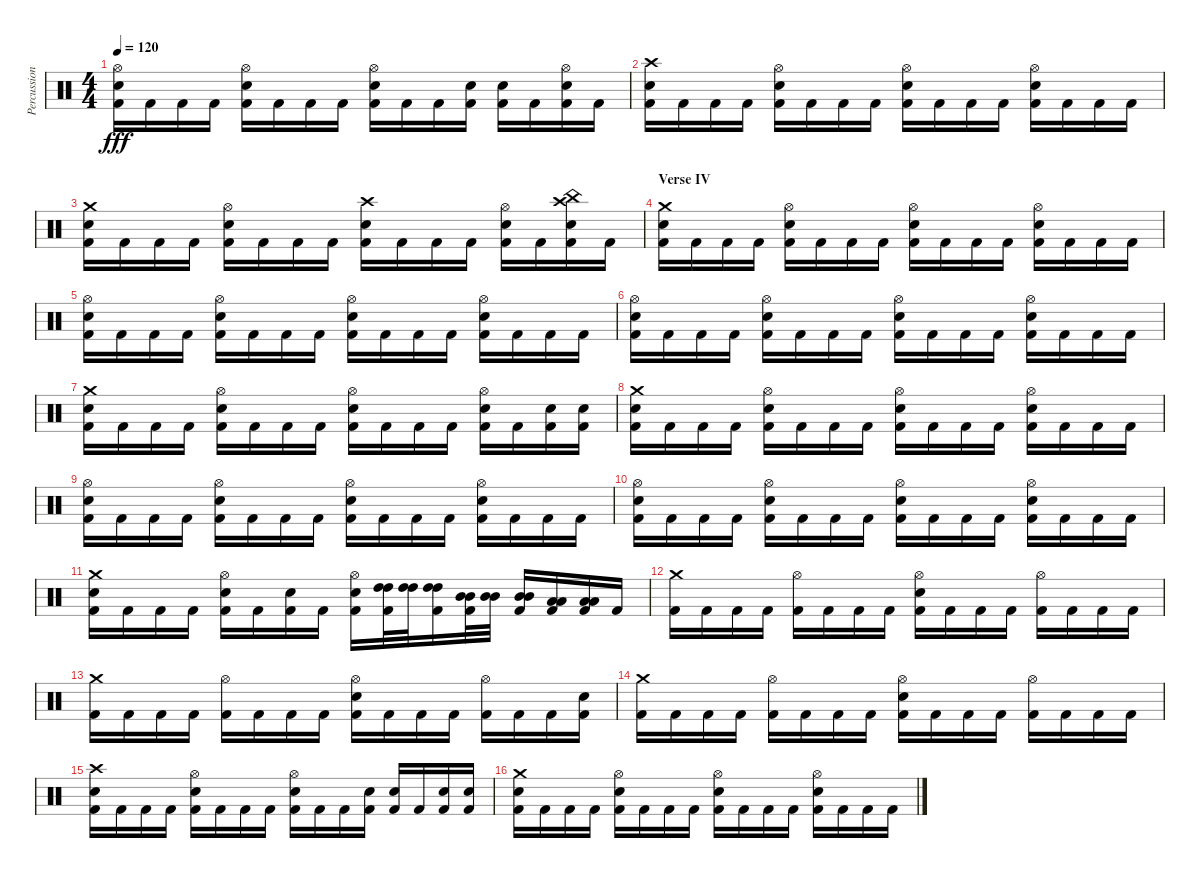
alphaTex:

\track ("Percussion" "Percussion") {instrument percussion}
\staff {score}
\articulation defaults
\ts (4 4)
\tempo 120
\clef neutral
\ks c
("Hi-Hat (open)" "Snare (hit) 2" "Kick (hit) 2").16{dy fff} "Kick (hit) 2".16 "Kick (hit) 2".16 "Kick (hit) 2".16 ("Hi-Hat (open)" "Snare (hit) 2" "Kick (hit) 2").16 "Kick (hit) 2".16 "Kick (hit) 2".16 "Kick (hit) 2".16 ("Hi-Hat (open)" "Snare (hit) 2" "Kick (hit) 2").16 "Kick (hit) 2".16 "Kick (hit) 2".16 ("Snare (hit) 2" "Kick (hit) 2").16 ("Snare (hit) 2" "Kick (hit) 2").16 "Kick (hit) 2".16 ("Hi-Hat (open)" "Snare (hit) 2" "Kick (hit) 2").16 "Kick (hit) 2".16 |
("Crash high (hit)" "Snare (hit) 2" "Kick (hit) 2").16 "Kick (hit) 2".16 "Kick (hit) 2".16 "Kick (hit) 2".16 ("Hi-Hat (open)" "Snare (hit) 2" "Kick (hit) 2").16 "Kick (hit) 2".16 "Kick (hit) 2".16 "Kick (hit) 2".16 ("Hi-Hat (open)" "Snare (hit) 2" "Kick (hit) 2").16 "Kick (hit) 2".16 "Kick (hit) 2".16 "Kick (hit) 2".16 ("Hi-Hat (open)" "Snare (hit) 2" "Kick (hit) 2").16 "Kick (hit) 2".16 "Kick (hit) 2".16 "Kick (hit) 2".16 |
("Crash medium (hit)" "Snare (hit) 2" "Kick (hit) 2").16 "Kick (hit) 2".16 "Kick (hit) 2".16 "Kick (hit) 2".16 ("Hi-Hat (open)" "Snare (hit) 2" "Kick (hit) 2").16 "Kick (hit) 2".16 "Kick (hit) 2".16 "Kick (hit) 2".16 ("Crash high (hit)" "Snare (hit) 2" "Kick (hit) 2").16 "Kick (hit) 2".16 "Kick (hit) 2".16 "Kick (hit) 2".16 ("Hi-Hat (open)" "Snare (hit) 2" "Kick (hit) 2").16 "Kick (hit) 2".16 ("Crash high (hit)" "China (hit)" "Snare (hit) 2" "Kick (hit) 2").16 "Kick (hit) 2".16 |
\section ("" "Verse IV")
("Crash medium (hit)" "Snare (hit) 2" "Kick (hit) 2").16 "Kick (hit) 2".16 "Kick (hit) 2".16 "Kick (hit) 2".16 ("Hi-Hat (open)" "Snare (hit) 2" "Kick (hit) 2").16 "Kick (hit) 2".16 "Kick (hit) 2".16 "Kick (hit) 2".16 ("Hi-Hat (open)" "Snare (hit) 2" "Kick (hit) 2").16 "Kick (hit) 2".16 "Kick (hit) 2".16 "Kick (hit) 2".16 ("Hi-Hat (open)" "Snare (hit) 2" "Kick (hit) 2").16 "Kick (hit) 2".16 "Kick (hit) 2".16 "Kick (hit) 2".16 |
("Hi-Hat (open)" "Snare (hit) 2" "Kick (hit) 2").16 "Kick (hit) 2".16 "Kick (hit) 2".16 "Kick (hit) 2".16 ("Hi-Hat (open)" "Snare (hit) 2" "Kick (hit) 2").16 "Kick (hit) 2".16 "Kick (hit) 2".16 "Kick (hit) 2".16 ("Hi-Hat (open)" "Snare (hit) 2" "Kick (hit) 2").16 "Kick (hit) 2".16 "Kick (hit) 2".16 "Kick (hit) 2".16 ("Hi-Hat (open)" "Snare (hit) 2" "Kick (hit) 2").16 "Kick (hit) 2".16 "Kick (hit) 2".16 "Kick (hit) 2".16 |
("Hi-Hat (open)" "Snare (hit) 2" "Kick (hit) 2").16 "Kick (hit) 2".16 "Kick (hit) 2".16 "Kick (hit) 2".16 ("Hi-Hat (open)" "Snare (hit) 2" "Kick (hit) 2").16 "Kick (hit) 2".16 "Kick (hit) 2".16 "Kick (hit) 2".16 ("Hi-Hat (open)" "Snare (hit) 2" "Kick (hit) 2").16 "Kick (hit) 2".16 "Kick (hit) 2".16 "Kick (hit) 2".16 ("Hi-Hat (open)" "Snare (hit) 2" "Kick (hit) 2").16 "Kick (hit) 2".16 "Kick (hit) 2".16 "Kick (hit) 2".16 |
("Crash medium (hit)" "Snare (hit) 2" "Kick (hit) 2").16 "Kick (hit) 2".16 "Kick (hit) 2".16 "Kick (hit) 2".16 ("Hi-Hat (open)" "Snare (hit) 2" "Kick (hit) 2").16 "Kick (hit) 2".16 "Kick (hit) 2".16 "Kick (hit) 2".16 ("Hi-Hat (open)" "Snare (hit) 2" "Kick (hit) 2").16 "Kick (hit) 2".16 "Kick (hit) 2".16 "Kick (hit) 2".16 ("Hi-Hat (open)" "Snare (hit) 2" "Kick (hit) 2").16 "Kick (hit) 2".16 ("Snare (hit) 2" "Kick (hit) 2").16 ("Snare (hit) 2" "Kick (hit) 2").16 |
("Crash medium (hit)" "Snare (hit) 2" "Kick (hit) 2").16 "Kick (hit) 2".16 "Kick (hit) 2".16 "Kick (hit) 2".16 ("Hi-Hat (open)" "Snare (hit) 2" "Kick (hit) 2").16 "Kick (hit) 2".16 "Kick (hit) 2".16 "Kick (hit) 2".16 ("Hi-Hat (open)" "Snare (hit) 2" "Kick (hit) 2").16 "Kick (hit) 2".16 "Kick (hit) 2".16 "Kick (hit) 2".16 ("Hi-Hat (open)" "Snare (hit) 2" "Kick (hit) 2").16 "Kick (hit) 2".16 "Kick (hit) 2".16 "Kick (hit) 2".16 |
("Hi-Hat (open)" "Snare (hit) 2" "Kick (hit) 2").16 "Kick (hit) 2".16 "Kick (hit) 2".16 "Kick (hit) 2".16 ("Hi-Hat (open)" "Snare (hit) 2" "Kick (hit) 2").16 "Kick (hit) 2".16 "Kick (hit) 2".16 "Kick (hit) 2".16 ("Hi-Hat (open)" "Snare (hit) 2" "Kick (hit) 2").16 "Kick (hit) 2".16 "Kick (hit) 2".16 "Kick (hit) 2".16 ("Hi-Hat (open)" "Snare (hit) 2" "Kick (hit) 2").16 "Kick (hit) 2".16 "Kick (hit) 2".16 "Kick (hit) 2".16 |
("Hi-Hat (open)" "Snare (hit) 2" "Kick (hit) 2").16 "Kick (hit) 2".16 "Kick (hit) 2".16 "Kick (hit) 2".16 ("Hi-Hat (open)" "Snare (hit) 2" "Kick (hit) 2").16 "Kick (hit) 2".16 "Kick (hit) 2".16 "Kick (hit) 2".16 ("Hi-Hat (open)" "Snare (hit) 2" "Kick (hit) 2").16 "Kick (hit) 2".16 "Kick (hit) 2".16 "Kick (hit) 2".16 ("Hi-Hat (open)" "Snare (hit) 2" "Kick (hit) 2").16 "Kick (hit) 2".16 "Kick (hit) 2".16 "Kick (hit) 2".16 |
("Crash medium (hit)" "Snare (hit) 2" "Kick (hit) 2").16 "Kick (hit) 2".16 "Kick (hit) 2".16 "Kick (hit) 2".16 ("Hi-Hat (open)" "Snare (hit) 2" "Kick (hit) 2").16 "Kick (hit) 2".16 ("Snare (hit) 2" "Kick (hit) 2").16 "Kick (hit) 2".16 ("Hi-Hat (open)" "Snare (hit) 2" "Kick (hit) 2").16 ("High Tom (hit)" "High Tom (hit)" "Kick (hit) 2").32 ("High Tom (hit)" "High Tom (hit)").32 ("High Tom (hit)" "High Tom (hit)" "Kick (hit) 2").16 ("Mid Tom (hit)" "Mid Tom (hit)" "Kick (hit) 2").32 ("Mid Tom (hit)" "Mid Tom (hit)").32 ("Mid Tom (hit)" "Mid Tom (hit)" "Kick (hit) 2").16 ("Low Tom (hit)" "Low Tom (hit)" "Kick (hit) 2").16 ("Low Tom (hit)" "Low Tom (hit)" "Kick (hit) 2").16 "Kick (hit) 2".16 |
("Crash medium (hit)" "Kick (hit) 2").16 "Kick (hit) 2".16 "Kick (hit) 2".16 "Kick (hit) 2".16 ("Hi-Hat (open)" "Kick (hit) 2").16 "Kick (hit) 2".16 "Kick (hit) 2".16 "Kick (hit) 2".16 ("Hi-Hat (open)" "Snare (hit) 2" "Kick (hit) 2").16 "Kick (hit) 2".16 "Kick (hit) 2".16 "Kick (hit) 2".16 ("Hi-Hat (open)" "Kick (hit) 2").16 "Kick (hit) 2".16 "Kick (hit) 2".16 "Kick (hit) 2".16 |
("Crash medium (hit)" "Kick (hit) 2").16 "Kick (hit) 2".16 "Kick (hit) 2".16 "Kick (hit) 2".16 ("Hi-Hat (open)" "Kick (hit) 2").16 "Kick (hit) 2".16 "Kick (hit) 2".16 "Kick (hit) 2".16 ("Hi-Hat (open)" "Snare (hit) 2" "Kick (hit) 2").16 "Kick (hit) 2".16 "Kick (hit) 2".16 "Kick (hit) 2".16 ("Hi-Hat (open)" "Kick (hit) 2").16 "Kick (hit) 2".16 "Kick (hit) 2".16 ("Snare (hit) 2" "Kick (hit) 2").16 |
("Crash medium (hit)" "Kick (hit) 2").16 "Kick (hit) 2".16 "Kick (hit) 2".16 "Kick (hit) 2".16 ("Hi-Hat (open)" "Kick (hit) 2").16 "Kick (hit) 2".16 "Kick (hit) 2".16 "Kick (hit) 2".16 ("Hi-Hat (open)" "Snare (hit) 2" "Kick (hit) 2").16 "Kick (hit) 2".16 "Kick (hit) 2".16 "Kick (hit) 2".16 ("Hi-Hat (open)" "Kick (hit) 2").16 "Kick (hit) 2".16 "Kick (hit) 2".16 "Kick (hit) 2".16 |
("Crash high (hit)" "Snare (hit) 2" "Kick (hit) 2").16 "Kick (hit) 2".16 "Kick (hit) 2".16 "Kick (hit) 2".16 ("Hi-Hat (open)" "Snare (hit) 2" "Kick (hit) 2").16 "Kick (hit) 2".16 "Kick (hit) 2".16 "Kick (hit) 2".16 ("Hi-Hat (open)" "Snare (hit) 2" "Kick (hit) 2").16 "Kick (hit) 2".16 "Kick (hit) 2".16 ("Snare (hit) 2" "Kick (hit) 2").16 ("Snare (hit) 2" "Kick (hit) 2").16 "Kick (hit) 2".16 ("Snare (hit) 2" "Kick (hit) 2").16 ("Snare (hit) 2" "Kick (hit) 2").16 |
("Crash medium (hit)" "Snare (hit) 2" "Kick (hit) 2").16 "Kick (hit) 2".16 "Kick (hit) 2".16 "Kick (hit) 2".16 ("Hi-Hat (open)" "Snare (hit) 2" "Kick (hit) 2").16 "Kick (hit) 2".16 "Kick (hit) 2".16 "Kick (hit) 2".16 ("Hi-Hat (open)" "Snare (hit) 2" "Kick (hit) 2").16 "Kick (hit) 2".16 "Kick (hit) 2".16 "Kick (hit) 2".16 ("Hi-Hat (open)" "Snare (hit) 2" "Kick (hit) 2").16 "Kick (hit) 2".16 "Kick (hit) 2".16 "Kick (hit) 2".16
